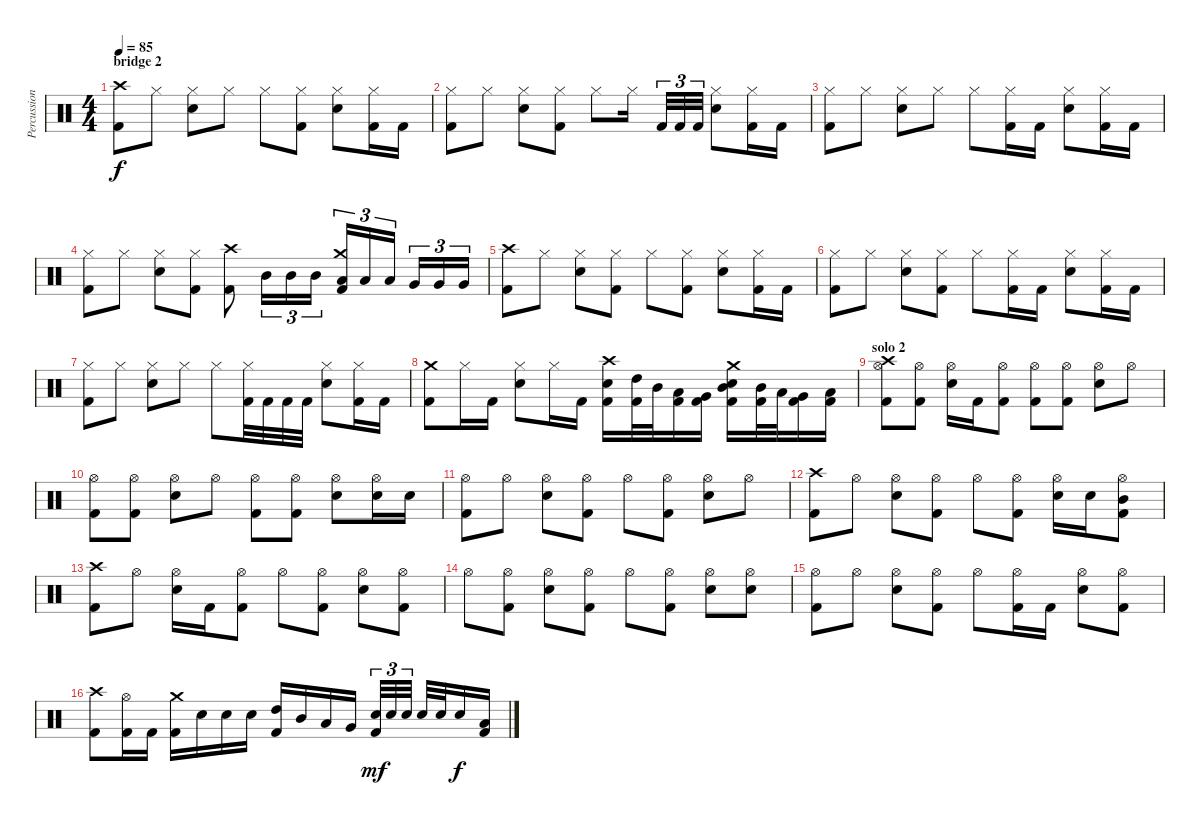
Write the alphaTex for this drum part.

\track ("Percussion" "Percussion") {instrument percussion}
\staff {score}
\articulation defaults
\ts (4 4)
\section ("" "bridge 2")
\tempo 85
\clef neutral
\ks c
("Crash high (hit)" "Kick (hit) 2").8{dy f} "Hi-Hat (closed)".8 ("Hi-Hat (closed)" "Snare (hit) 2").8 "Hi-Hat (closed)".8 "Hi-Hat (closed)".8 ("Hi-Hat (closed)" "Kick (hit) 2").8 ("Hi-Hat (closed)" "Snare (hit) 2").8 ("Hi-Hat (closed)" "Kick (hit) 2").16 "Kick (hit) 2".16 |
("Hi-Hat (closed)" "Kick (hit) 2").8 "Hi-Hat (closed)".8 ("Hi-Hat (closed)" "Snare (hit) 2").8 ("Hi-Hat (closed)" "Kick (hit) 2").8 "Hi-Hat (closed)".8 "Hi-Hat (closed)".16 "Kick (hit) 2".32{tu (3 2)} "Kick (hit) 2".32{tu (3 2)} "Kick (hit) 2".32{tu (3 2)} ("Hi-Hat (closed)" "Snare (hit) 2").8 ("Hi-Hat (closed)" "Kick (hit) 2").16 "Kick (hit) 2".16 |
("Hi-Hat (closed)" "Kick (hit) 2").8 "Hi-Hat (closed)".8 ("Hi-Hat (closed)" "Snare (hit) 2").8 "Hi-Hat (closed)".8 "Hi-Hat (closed)".8 ("Hi-Hat (closed)" "Kick (hit) 2").16 "Kick (hit) 2".16 ("Hi-Hat (closed)" "Snare (hit) 2").8 ("Hi-Hat (closed)" "Kick (hit) 2").16 "Kick (hit) 2".16 |
("Hi-Hat (closed)" "Kick (hit) 2").8 "Hi-Hat (closed)".8 ("Hi-Hat (closed)" "Snare (hit) 2").8 ("Hi-Hat (closed)" "Kick (hit) 2").8 ("Crash high (hit)" "Kick (hit) 2").8 "Mid Tom (hit)".16{tu (3 2)} "Mid Tom (hit)".16{tu (3 2)} "Mid Tom (hit)".16{tu (3 2)} ("Crash medium (hit)" "Low Tom (hit)" "Kick (hit) 2").16{tu (3 2)} "Low Tom (hit)".16{tu (3 2)} "Low Tom (hit)".16{tu (3 2)} "Very Low Tom (hit)".16{tu (3 2)} "Very Low Tom (hit)".16{tu (3 2)} "Very Low Tom (hit)".16{tu (3 2)} |
("Crash high (hit)" "Kick (hit) 2").8 "Hi-Hat (closed)".8 ("Hi-Hat (closed)" "Snare (hit) 2").8 ("Hi-Hat (closed)" "Kick (hit) 2").8 "Hi-Hat (closed)".8 ("Hi-Hat (closed)" "Kick (hit) 2").8 ("Hi-Hat (closed)" "Snare (hit) 2").8 ("Hi-Hat (closed)" "Kick (hit) 2").16 "Kick (hit) 2".16 |
("Hi-Hat (closed)" "Kick (hit) 2").8 "Hi-Hat (closed)".8 ("Hi-Hat (closed)" "Snare (hit) 2").8 ("Hi-Hat (closed)" "Kick (hit) 2").8 "Hi-Hat (closed)".8 ("Hi-Hat (closed)" "Kick (hit) 2").16 "Kick (hit) 2".16 ("Hi-Hat (closed)" "Snare (hit) 2").8 ("Hi-Hat (closed)" "Kick (hit) 2").16 "Kick (hit) 2".16 |
("Hi-Hat (closed)" "Kick (hit) 2").8 "Hi-Hat (closed)".8 ("Hi-Hat (closed)" "Snare (hit) 2").8 "Hi-Hat (closed)".8 "Hi-Hat (closed)".8 ("Hi-Hat (closed)" "Kick (hit) 2").32 "Kick (hit) 2".32 "Kick (hit) 2".32 "Kick (hit) 2".32 ("Hi-Hat (closed)" "Snare (hit) 2").8 ("Hi-Hat (closed)" "Kick (hit) 2").16 "Kick (hit) 2".16 |
("Crash medium (hit)" "Kick (hit) 2").8 "Hi-Hat (closed)".16 "Kick (hit) 2".16 ("Hi-Hat (closed)" "Snare (hit) 2").8 "Hi-Hat (closed)".16 "Kick (hit) 2".16 ("Crash high (hit)" "Snare (hit) 2" "Kick (hit) 2").16 ("High Tom (hit)" "Kick (hit) 2").32 "Mid Tom (hit)".32 ("Low Tom (hit)" "Kick (hit) 2").16 ("Very Low Tom (hit)" "Kick (hit) 2").16 ("Crash medium (hit)" "Mid Tom (hit)" "Snare (hit) 2" "Kick (hit) 2").16 ("Mid Tom (hit)" "Kick (hit) 2").32 "Low Tom (hit)".32 ("Very Low Tom (hit)" "Kick (hit) 2").16 ("Low Floor Tom (hit)" "Kick (hit) 2").16 |
\section ("" "solo 2")
("Crash high (hit)" "Hi-Hat (open)" "Kick (hit) 2").8 ("Hi-Hat (open)" "Kick (hit) 2").8 ("Hi-Hat (open)" "Snare (hit) 2").16 "Kick (hit) 2".16 ("Hi-Hat (open)" "Kick (hit) 2").8 ("Hi-Hat (open)" "Kick (hit) 2").8 ("Hi-Hat (open)" "Kick (hit) 2").8 ("Hi-Hat (open)" "Snare (hit) 2").8 "Hi-Hat (open)".8 |
("Hi-Hat (open)" "Kick (hit) 2").8 ("Hi-Hat (open)" "Kick (hit) 2").8 ("Hi-Hat (open)" "Snare (hit) 2").8 "Hi-Hat (open)".8 ("Hi-Hat (open)" "Kick (hit) 2").8 ("Hi-Hat (open)" "Kick (hit) 2").8 ("Hi-Hat (open)" "Snare (hit) 2").8 ("Hi-Hat (open)" "Snare (hit) 2").16 "Snare (hit) 2".16 |
("Hi-Hat (open)" "Kick (hit) 2").8 "Hi-Hat (open)".8 ("Hi-Hat (open)" "Snare (hit) 2").8 ("Hi-Hat (open)" "Kick (hit) 2").8 "Hi-Hat (open)".8 ("Hi-Hat (open)" "Kick (hit) 2").8 ("Hi-Hat (open)" "Snare (hit) 2").8 "Hi-Hat (open)".8 |
("Crash high (hit)" "Kick (hit) 2").8 "Hi-Hat (open)".8 ("Hi-Hat (open)" "Snare (hit) 2").8 ("Hi-Hat (open)" "Kick (hit) 2").8 "Hi-Hat (open)".8 ("Hi-Hat (open)" "Kick (hit) 2").8 ("Hi-Hat (open)" "Snare (hit) 2").16 "Snare (hit) 2".16 ("Hi-Hat (open)" "Mid Tom (hit)" "Kick (hit) 2").8 |
("Crash high (hit)" "Kick (hit) 2").8 "Hi-Hat (open)".8 ("Hi-Hat (open)" "Snare (hit) 2").16 "Kick (hit) 2".16 ("Hi-Hat (open)" "Kick (hit) 2").8 "Hi-Hat (open)".8 ("Hi-Hat (open)" "Kick (hit) 2").8 ("Hi-Hat (open)" "Snare (hit) 2").8 ("Hi-Hat (open)" "Kick (hit) 2").8 |
"Hi-Hat (open)".8 ("Hi-Hat (open)" "Kick (hit) 2").8 ("Hi-Hat (open)" "Snare (hit) 2").8 ("Hi-Hat (open)" "Kick (hit) 2").8 "Hi-Hat (open)".8 ("Hi-Hat (open)" "Kick (hit) 2").8 ("Hi-Hat (open)" "Snare (hit) 2").8 ("Hi-Hat (open)" "Snare (hit) 2").8 |
("Hi-Hat (open)" "Kick (hit) 2").8 "Hi-Hat (open)".8 ("Hi-Hat (open)" "Snare (hit) 2").8 ("Hi-Hat (open)" "Kick (hit) 2").8 "Hi-Hat (open)".8 ("Hi-Hat (open)" "Kick (hit) 2").16 "Kick (hit) 2".16 ("Hi-Hat (open)" "Snare (hit) 2").8 ("Hi-Hat (open)" "Kick (hit) 2").8 |
("Crash high (hit)" "Kick (hit) 2").8 ("Hi-Hat (open)" "Kick (hit) 2").16 "Kick (hit) 2".16 ("Crash medium (hit)" "Kick (hit) 2").16 "Snare (hit) 2".16 "Snare (hit) 2".16 "Snare (hit) 2".16 ("High Tom (hit)" "Kick (hit) 2").16 "Mid Tom (hit)".16 "Low Tom (hit)".16 "Very Low Tom (hit)".16 ("Snare (hit) 2" "Kick (hit) 2").32{tu (3 2) dy mf} "Snare (hit) 2".32{tu (3 2)} "Snare (hit) 2".32{tu (3 2)} "Snare (hit) 2".32 "Snare (hit) 2".32 "Snare (hit) 2".16{dy f} ("Low Floor Tom (hit)" "Kick (hit) 2").16
